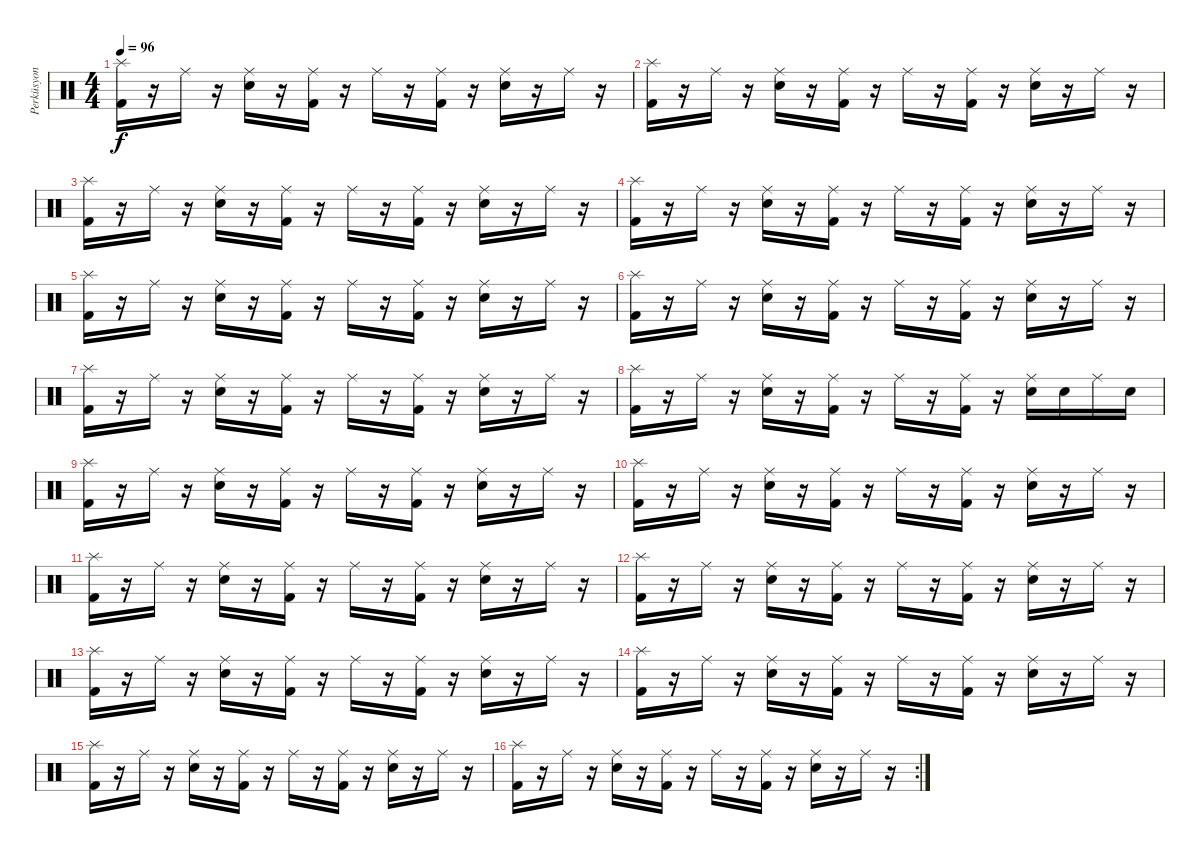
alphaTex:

\track ("Perküsyon" "Perküsyon") {instrument percussion}
\staff {score}
\articulation defaults
\ts (4 4)
\tempo 96
\clef neutral
\ks c
("Kick (hit) 2" "Splash (hit)").16{dy f} r.16 "Ride (middle)".16 r.16 ("Snare (hit) 2" "Ride (middle)").16 r.16 ("Ride (middle)" "Kick (hit) 2").16 r.16 "Ride (middle)".16 r.16 ("Ride (middle)" "Kick (hit) 2").16 r.16 ("Snare (hit) 2" "Ride (middle)").16 r.16 "Ride (middle)".16 r.16 |
("Kick (hit) 2" "Splash (hit)").16 r.16 "Ride (middle)".16 r.16 ("Snare (hit) 2" "Ride (middle)").16 r.16 ("Ride (middle)" "Kick (hit) 2").16 r.16 "Ride (middle)".16 r.16 ("Ride (middle)" "Kick (hit) 2").16 r.16 ("Snare (hit) 2" "Ride (middle)").16 r.16 "Ride (middle)".16 r.16 |
("Kick (hit) 2" "Splash (hit)").16 r.16 "Ride (middle)".16 r.16 ("Snare (hit) 2" "Ride (middle)").16 r.16 ("Ride (middle)" "Kick (hit) 2").16 r.16 "Ride (middle)".16 r.16 ("Ride (middle)" "Kick (hit) 2").16 r.16 ("Snare (hit) 2" "Ride (middle)").16 r.16 "Ride (middle)".16 r.16 |
("Kick (hit) 2" "Splash (hit)").16 r.16 "Ride (middle)".16 r.16 ("Snare (hit) 2" "Ride (middle)").16 r.16 ("Ride (middle)" "Kick (hit) 2").16 r.16 "Ride (middle)".16 r.16 ("Ride (middle)" "Kick (hit) 2").16 r.16 ("Snare (hit) 2" "Ride (middle)").16 r.16 "Ride (middle)".16 r.16 |
("Kick (hit) 2" "Splash (hit)").16 r.16 "Ride (middle)".16 r.16 ("Snare (hit) 2" "Ride (middle)").16 r.16 ("Ride (middle)" "Kick (hit) 2").16 r.16 "Ride (middle)".16 r.16 ("Ride (middle)" "Kick (hit) 2").16 r.16 ("Snare (hit) 2" "Ride (middle)").16 r.16 "Ride (middle)".16 r.16 |
("Kick (hit) 2" "Splash (hit)").16 r.16 "Ride (middle)".16 r.16 ("Snare (hit) 2" "Ride (middle)").16 r.16 ("Ride (middle)" "Kick (hit) 2").16 r.16 "Ride (middle)".16 r.16 ("Ride (middle)" "Kick (hit) 2").16 r.16 ("Snare (hit) 2" "Ride (middle)").16 r.16 "Ride (middle)".16 r.16 |
("Kick (hit) 2" "Splash (hit)").16 r.16 "Ride (middle)".16 r.16 ("Snare (hit) 2" "Ride (middle)").16 r.16 ("Ride (middle)" "Kick (hit) 2").16 r.16 "Ride (middle)".16 r.16 ("Ride (middle)" "Kick (hit) 2").16 r.16 ("Snare (hit) 2" "Ride (middle)").16 r.16 "Ride (middle)".16 r.16 |
("Kick (hit) 2" "Splash (hit)").16 r.16 "Ride (middle)".16 r.16 ("Snare (hit) 2" "Ride (middle)").16 r.16 ("Ride (middle)" "Kick (hit) 2").16 r.16 "Ride (middle)".16 r.16 ("Ride (middle)" "Kick (hit) 2").16 r.16 ("Snare (hit) 2" "Ride (middle)").16 "Snare (hit) 2".16 "Ride (middle)".16 "Snare (hit) 2".16 |
("Kick (hit) 2" "Splash (hit)").16 r.16 "Ride (middle)".16 r.16 ("Snare (hit) 2" "Ride (middle)").16 r.16 ("Ride (middle)" "Kick (hit) 2").16 r.16 "Ride (middle)".16 r.16 ("Ride (middle)" "Kick (hit) 2").16 r.16 ("Snare (hit) 2" "Ride (middle)").16 r.16 "Ride (middle)".16 r.16 |
("Kick (hit) 2" "Splash (hit)").16 r.16 "Ride (middle)".16 r.16 ("Snare (hit) 2" "Ride (middle)").16 r.16 ("Ride (middle)" "Kick (hit) 2").16 r.16 "Ride (middle)".16 r.16 ("Ride (middle)" "Kick (hit) 2").16 r.16 ("Snare (hit) 2" "Ride (middle)").16 r.16 "Ride (middle)".16 r.16 |
("Kick (hit) 2" "Splash (hit)").16 r.16 "Ride (middle)".16 r.16 ("Snare (hit) 2" "Ride (middle)").16 r.16 ("Ride (middle)" "Kick (hit) 2").16 r.16 "Ride (middle)".16 r.16 ("Ride (middle)" "Kick (hit) 2").16 r.16 ("Snare (hit) 2" "Ride (middle)").16 r.16 "Ride (middle)".16 r.16 |
("Kick (hit) 2" "Splash (hit)").16 r.16 "Ride (middle)".16 r.16 ("Snare (hit) 2" "Ride (middle)").16 r.16 ("Ride (middle)" "Kick (hit) 2").16 r.16 "Ride (middle)".16 r.16 ("Ride (middle)" "Kick (hit) 2").16 r.16 ("Snare (hit) 2" "Ride (middle)").16 r.16 "Ride (middle)".16 r.16 |
("Kick (hit) 2" "Splash (hit)").16 r.16 "Ride (middle)".16 r.16 ("Snare (hit) 2" "Ride (middle)").16 r.16 ("Ride (middle)" "Kick (hit) 2").16 r.16 "Ride (middle)".16 r.16 ("Ride (middle)" "Kick (hit) 2").16 r.16 ("Snare (hit) 2" "Ride (middle)").16 r.16 "Ride (middle)".16 r.16 |
("Kick (hit) 2" "Splash (hit)").16 r.16 "Ride (middle)".16 r.16 ("Snare (hit) 2" "Ride (middle)").16 r.16 ("Ride (middle)" "Kick (hit) 2").16 r.16 "Ride (middle)".16 r.16 ("Ride (middle)" "Kick (hit) 2").16 r.16 ("Snare (hit) 2" "Ride (middle)").16 r.16 "Ride (middle)".16 r.16 |
("Kick (hit) 2" "Splash (hit)").16 r.16 "Ride (middle)".16 r.16 ("Snare (hit) 2" "Ride (middle)").16 r.16 ("Ride (middle)" "Kick (hit) 2").16 r.16 "Ride (middle)".16 r.16 ("Ride (middle)" "Kick (hit) 2").16 r.16 ("Snare (hit) 2" "Ride (middle)").16 r.16 "Ride (middle)".16 r.16 |
\rc 2
("Kick (hit) 2" "Splash (hit)").16 r.16 "Ride (middle)".16 r.16 ("Snare (hit) 2" "Ride (middle)").16 r.16 ("Ride (middle)" "Kick (hit) 2").16 r.16 "Ride (middle)".16 r.16 ("Ride (middle)" "Kick (hit) 2").16 r.16 ("Snare (hit) 2" "Ride (middle)").16 r.16 "Ride (middle)".16 r.16
